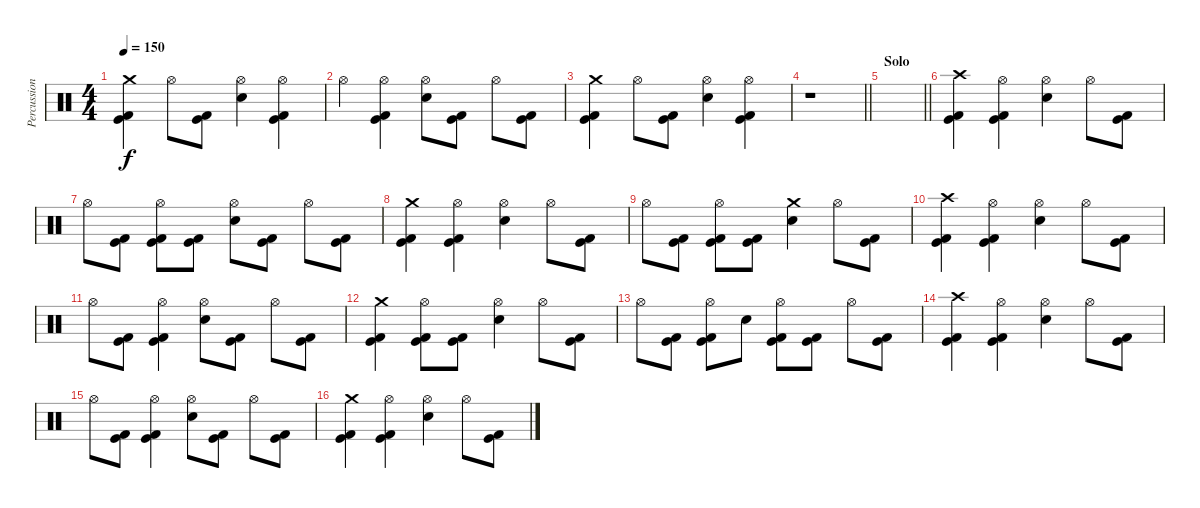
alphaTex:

\track ("Percussion" "Percussion") {instrument percussion}
\staff {score}
\articulation defaults
\ts (4 4)
\tempo 150
\clef neutral
\ks c
("Crash medium (hit)" "Kick (hit)" "Kick (hit) 2").4{dy f} "Hi-Hat (open)".8 ("Kick (hit)" "Kick (hit) 2").8 ("Hi-Hat (open)" "Electric Snare (hit)").4 ("Hi-Hat (open)" "Kick (hit)" "Kick (hit) 2").4 |
"Hi-Hat (open)".4 ("Hi-Hat (open)" "Kick (hit)" "Kick (hit) 2").4 ("Hi-Hat (open)" "Electric Snare (hit)").8 ("Kick (hit)" "Kick (hit) 2").8 "Hi-Hat (open)".8 ("Kick (hit)" "Kick (hit) 2").8 |
("Crash medium (hit)" "Kick (hit)" "Kick (hit) 2").4 "Hi-Hat (open)".8 ("Kick (hit)" "Kick (hit) 2").8 ("Hi-Hat (open)" "Electric Snare (hit)").4 ("Hi-Hat (open)" "Kick (hit)" "Kick (hit) 2").4 |
\barLineRight lightlight
r.1 |
\section ("" "Solo")
\barLineRight lightlight
|
("Crash high (hit)" "Kick (hit)" "Kick (hit) 2").4 ("Hi-Hat (open)" "Kick (hit)" "Kick (hit) 2").4 ("Hi-Hat (open)" "Electric Snare (hit)").4 "Hi-Hat (open)".8 ("Kick (hit)" "Kick (hit) 2").8 |
"Hi-Hat (open)".8 ("Kick (hit)" "Kick (hit) 2").8 ("Hi-Hat (open)" "Kick (hit)" "Kick (hit) 2").8 ("Kick (hit)" "Kick (hit) 2").8 ("Hi-Hat (open)" "Electric Snare (hit)").8 ("Kick (hit)" "Kick (hit) 2").8 "Hi-Hat (open)".8 ("Kick (hit)" "Kick (hit) 2").8 |
("Crash medium (hit)" "Kick (hit)" "Kick (hit) 2").4 ("Hi-Hat (open)" "Kick (hit)" "Kick (hit) 2").4 ("Hi-Hat (open)" "Electric Snare (hit)").4 "Hi-Hat (open)".8 ("Kick (hit)" "Kick (hit) 2").8 |
"Hi-Hat (open)".8 ("Kick (hit)" "Kick (hit) 2").8 ("Hi-Hat (open)" "Kick (hit)" "Kick (hit) 2").8 ("Kick (hit)" "Kick (hit) 2").8 ("Crash medium (hit)" "Electric Snare (hit)").4 "Hi-Hat (open)".8 ("Kick (hit)" "Kick (hit) 2").8 |
("Crash high (hit)" "Kick (hit)" "Kick (hit) 2").4 ("Hi-Hat (open)" "Kick (hit)" "Kick (hit) 2").4 ("Hi-Hat (open)" "Electric Snare (hit)").4 "Hi-Hat (open)".8 ("Kick (hit)" "Kick (hit) 2").8 |
"Hi-Hat (open)".8 ("Kick (hit)" "Kick (hit) 2").8 ("Hi-Hat (open)" "Kick (hit)" "Kick (hit) 2").4 ("Hi-Hat (open)" "Electric Snare (hit)").8 ("Kick (hit)" "Kick (hit) 2").8 "Hi-Hat (open)".8 ("Kick (hit)" "Kick (hit) 2").8 |
("Crash medium (hit)" "Kick (hit)" "Kick (hit) 2").4 ("Hi-Hat (open)" "Kick (hit)" "Kick (hit) 2").8 ("Kick (hit)" "Kick (hit) 2").8 ("Hi-Hat (open)" "Electric Snare (hit)").4 "Hi-Hat (open)".8 ("Kick (hit)" "Kick (hit) 2").8 |
"Hi-Hat (open)".8 ("Kick (hit)" "Kick (hit) 2").8 ("Hi-Hat (open)" "Kick (hit)" "Kick (hit) 2").8 "Electric Snare (hit)".8 ("Hi-Hat (open)" "Kick (hit)" "Kick (hit) 2").8 ("Kick (hit)" "Kick (hit) 2").8 "Hi-Hat (open)".8 ("Kick (hit)" "Kick (hit) 2").8 |
("Crash high (hit)" "Kick (hit)" "Kick (hit) 2").4 ("Hi-Hat (open)" "Kick (hit)" "Kick (hit) 2").4 ("Hi-Hat (open)" "Electric Snare (hit)").4 "Hi-Hat (open)".8 ("Kick (hit)" "Kick (hit) 2").8 |
"Hi-Hat (open)".8 ("Kick (hit)" "Kick (hit) 2").8 ("Hi-Hat (open)" "Kick (hit)" "Kick (hit) 2").4 ("Hi-Hat (open)" "Electric Snare (hit)").8 ("Kick (hit)" "Kick (hit) 2").8 "Hi-Hat (open)".8 ("Kick (hit)" "Kick (hit) 2").8 |
("Crash medium (hit)" "Kick (hit)" "Kick (hit) 2").4 ("Hi-Hat (open)" "Kick (hit)" "Kick (hit) 2").4 ("Hi-Hat (open)" "Electric Snare (hit)").4 "Hi-Hat (open)".8 ("Kick (hit)" "Kick (hit) 2").8
